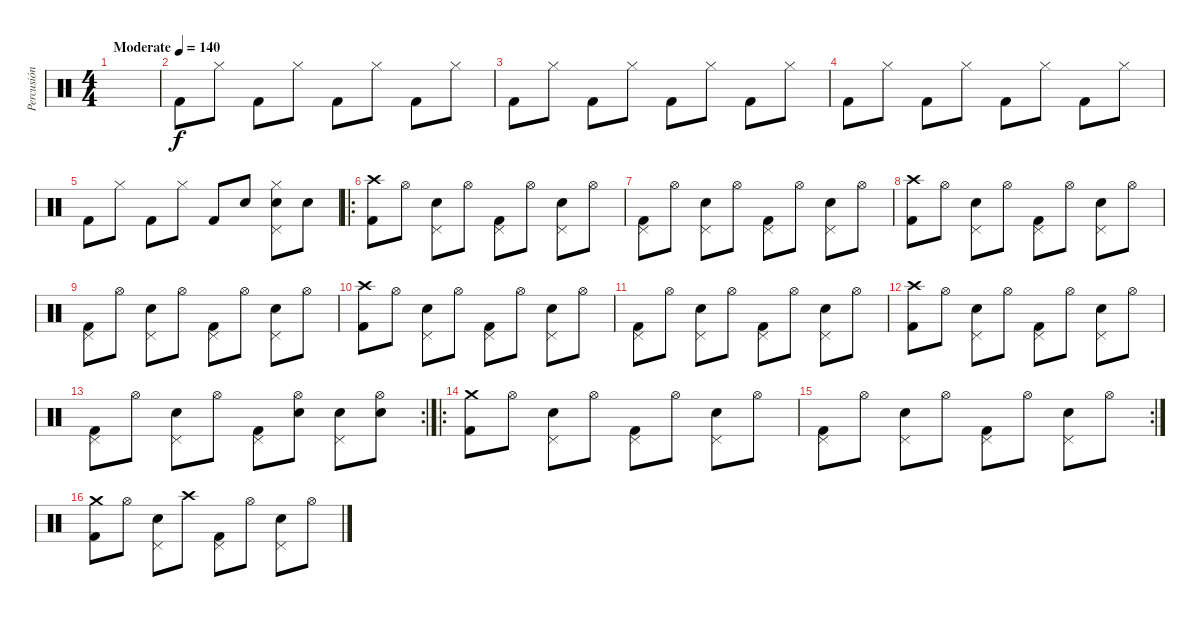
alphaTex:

\track ("Percusión" "Percusión") {instrument percussion}
\staff {score}
\articulation defaults
\ts (4 4)
\tempo (140 "Moderate")
\clef neutral
\ks c
|
"Kick (hit) 2".8 "Hi-Hat (closed)".8 "Kick (hit) 2".8 "Hi-Hat (closed)".8 "Kick (hit) 2".8 "Hi-Hat (closed)".8 "Kick (hit) 2".8 "Hi-Hat (closed)".8 |
"Kick (hit) 2".8 "Hi-Hat (closed)".8 "Kick (hit) 2".8 "Hi-Hat (closed)".8 "Kick (hit) 2".8 "Hi-Hat (closed)".8 "Kick (hit) 2".8 "Hi-Hat (closed)".8 |
"Kick (hit) 2".8 "Hi-Hat (closed)".8 "Kick (hit) 2".8 "Hi-Hat (closed)".8 "Kick (hit) 2".8 "Hi-Hat (closed)".8 "Kick (hit) 2".8 "Hi-Hat (closed)".8 |
"Kick (hit) 2".8 "Hi-Hat (closed)".8 "Kick (hit) 2".8 "Hi-Hat (closed)".8 "Kick (hit) 2".8 "Electric Snare (hit)".8 ("Pedal Hi-Hat (hit)" "Electric Snare (hit)" "Hi-Hat (closed)").8 "Electric Snare (hit)".8 |
\ro
("Crash high (hit)" "Kick (hit) 2").8 "Hi-Hat (open)".8 ("Pedal Hi-Hat (hit)" "Electric Snare (hit)").8 "Hi-Hat (open)".8 ("Pedal Hi-Hat (hit)" "Kick (hit) 2").8 "Hi-Hat (open)".8 ("Pedal Hi-Hat (hit)" "Electric Snare (hit)").8 "Hi-Hat (open)".8 |
("Pedal Hi-Hat (hit)" "Kick (hit) 2").8 "Hi-Hat (open)".8 ("Pedal Hi-Hat (hit)" "Electric Snare (hit)").8 "Hi-Hat (open)".8 ("Pedal Hi-Hat (hit)" "Kick (hit) 2").8 "Hi-Hat (open)".8 ("Pedal Hi-Hat (hit)" "Electric Snare (hit)").8 "Hi-Hat (open)".8 |
("Crash high (hit)" "Kick (hit) 2").8 "Hi-Hat (open)".8 ("Pedal Hi-Hat (hit)" "Electric Snare (hit)").8 "Hi-Hat (open)".8 ("Pedal Hi-Hat (hit)" "Kick (hit) 2").8 "Hi-Hat (open)".8 ("Pedal Hi-Hat (hit)" "Electric Snare (hit)").8 "Hi-Hat (open)".8 |
("Pedal Hi-Hat (hit)" "Kick (hit) 2").8 "Hi-Hat (open)".8 ("Pedal Hi-Hat (hit)" "Electric Snare (hit)").8 "Hi-Hat (open)".8 ("Pedal Hi-Hat (hit)" "Kick (hit) 2").8 "Hi-Hat (open)".8 ("Pedal Hi-Hat (hit)" "Electric Snare (hit)").8 "Hi-Hat (open)".8 |
("Crash high (hit)" "Kick (hit) 2").8 "Hi-Hat (open)".8 ("Pedal Hi-Hat (hit)" "Electric Snare (hit)").8 "Hi-Hat (open)".8 ("Pedal Hi-Hat (hit)" "Kick (hit) 2").8 "Hi-Hat (open)".8 ("Pedal Hi-Hat (hit)" "Electric Snare (hit)").8 "Hi-Hat (open)".8 |
("Pedal Hi-Hat (hit)" "Kick (hit) 2").8 "Hi-Hat (open)".8 ("Pedal Hi-Hat (hit)" "Electric Snare (hit)").8 "Hi-Hat (open)".8 ("Pedal Hi-Hat (hit)" "Kick (hit) 2").8 "Hi-Hat (open)".8 ("Pedal Hi-Hat (hit)" "Electric Snare (hit)").8 "Hi-Hat (open)".8 |
("Crash high (hit)" "Kick (hit) 2").8 "Hi-Hat (open)".8 ("Pedal Hi-Hat (hit)" "Electric Snare (hit)").8 "Hi-Hat (open)".8 ("Pedal Hi-Hat (hit)" "Kick (hit) 2").8 "Hi-Hat (open)".8 ("Pedal Hi-Hat (hit)" "Electric Snare (hit)").8 "Hi-Hat (open)".8 |
\rc 2
("Pedal Hi-Hat (hit)" "Kick (hit) 2").8 "Hi-Hat (open)".8 ("Pedal Hi-Hat (hit)" "Electric Snare (hit)").8 "Hi-Hat (open)".8 ("Pedal Hi-Hat (hit)" "Kick (hit) 2").8 ("Hi-Hat (open)" "Electric Snare (hit)").8 ("Pedal Hi-Hat (hit)" "Electric Snare (hit)").8 ("Hi-Hat (open)" "Electric Snare (hit)").8 |
\ro
("Crash medium (hit)" "Kick (hit) 2").8 "Hi-Hat (open)".8 ("Pedal Hi-Hat (hit)" "Electric Snare (hit)").8 "Hi-Hat (open)".8 ("Pedal Hi-Hat (hit)" "Kick (hit) 2").8 "Hi-Hat (open)".8 ("Pedal Hi-Hat (hit)" "Electric Snare (hit)").8 "Hi-Hat (open)".8 |
\rc 2
("Pedal Hi-Hat (hit)" "Kick (hit) 2").8 "Hi-Hat (open)".8 ("Pedal Hi-Hat (hit)" "Electric Snare (hit)").8 "Hi-Hat (open)".8 ("Pedal Hi-Hat (hit)" "Kick (hit) 2").8 "Hi-Hat (open)".8 ("Pedal Hi-Hat (hit)" "Electric Snare (hit)").8 "Hi-Hat (open)".8 |
("Crash medium (hit)" "Kick (hit) 2").8 "Hi-Hat (open)".8 ("Pedal Hi-Hat (hit)" "Electric Snare (hit)").8 "Crash high (hit)".8 ("Pedal Hi-Hat (hit)" "Kick (hit) 2").8 "Hi-Hat (open)".8 ("Pedal Hi-Hat (hit)" "Electric Snare (hit)").8 "Hi-Hat (open)".8
